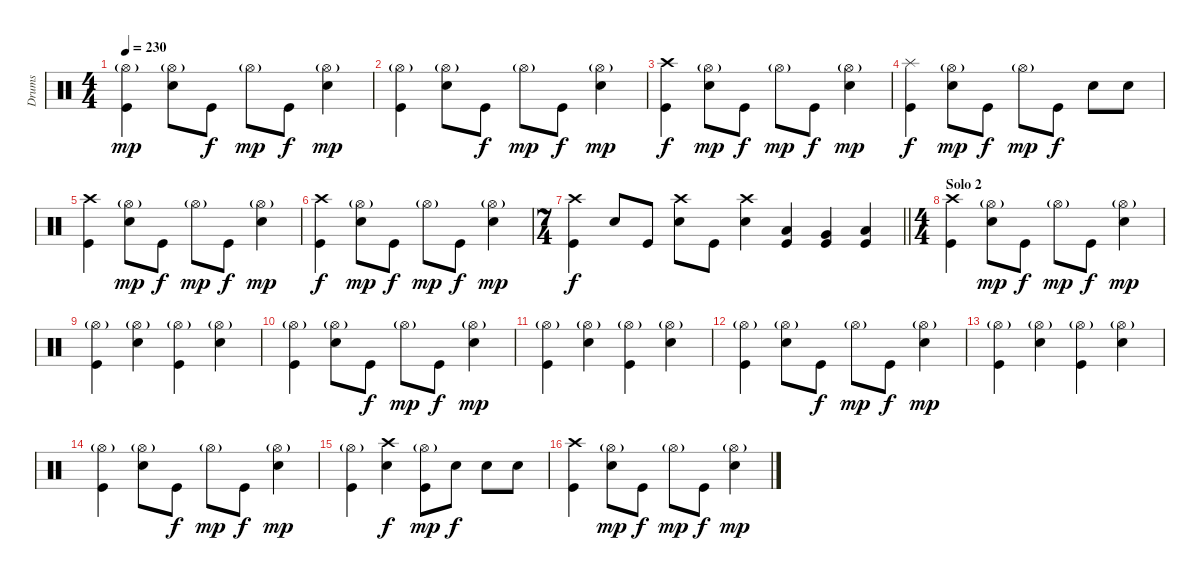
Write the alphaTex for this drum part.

\track ("Drums" "Drums") {instrument percussion}
\staff {score}
\articulation defaults
\ts (4 4)
\tempo 230
\clef neutral
\ks c
("Hi-Hat (open)"{g} "Kick (hit)").4{dy mp} ("Hi-Hat (open)"{g} "Snare (hit) 2").8 "Kick (hit)".8{dy f} "Hi-Hat (open)"{g}.8{dy mp} "Kick (hit)".8{dy f} ("Hi-Hat (open)"{g} "Snare (hit) 2").4{dy mp} |
("Hi-Hat (open)"{g} "Kick (hit)").4 ("Hi-Hat (open)"{g} "Snare (hit) 2").8 "Kick (hit)".8{dy f} "Hi-Hat (open)"{g}.8{dy mp} "Kick (hit)".8{dy f} ("Hi-Hat (open)"{g} "Snare (hit) 2").4{dy mp} |
("Crash high (hit)" "Kick (hit)").4{dy f} ("Hi-Hat (open)"{g} "Snare (hit) 2").8{dy mp} "Kick (hit)".8{dy f} "Hi-Hat (open)"{g}.8{dy mp} "Kick (hit)".8{dy f} ("Hi-Hat (open)"{g} "Snare (hit) 2").4{dy mp} |
("Splash (hit)" "Kick (hit)").4{dy f} ("Hi-Hat (open)"{g} "Snare (hit) 2").8{dy mp} "Kick (hit)".8{dy f} "Hi-Hat (open)"{g}.8{dy mp} "Kick (hit)".8{dy f} "Snare (hit) 2".8 "Snare (hit) 2".8 |
("Crash high (hit)" "Kick (hit)").4 ("Hi-Hat (open)"{g} "Snare (hit) 2").8{dy mp} "Kick (hit)".8{dy f} "Hi-Hat (open)"{g}.8{dy mp} "Kick (hit)".8{dy f} ("Hi-Hat (open)"{g} "Snare (hit) 2").4{dy mp} |
("Crash high (hit)" "Kick (hit)").4{dy f} ("Hi-Hat (open)"{g} "Snare (hit) 2").8{dy mp} "Kick (hit)".8{dy f} "Hi-Hat (open)"{g}.8{dy mp} "Kick (hit)".8{dy f} ("Hi-Hat (open)"{g} "Snare (hit) 2").4{dy mp} |
\ts (7 4)
\barLineRight lightlight
("Crash high (hit)" "Kick (hit)").4{dy f} "Snare (hit) 2".8 "Kick (hit)".8 ("Crash high (hit)" "Snare (hit) 2").8 "Kick (hit)".8 ("Crash high (hit)" "Snare (hit) 2").4 ("Low Tom (hit)" "Kick (hit)").4 ("Very Low Tom (hit)" "Kick (hit)").4 ("Low Floor Tom (hit)" "Kick (hit)").4 |
\ts (4 4)
\section ("" "Solo 2")
("Crash high (hit)" "Kick (hit)").4 ("Hi-Hat (open)"{g} "Snare (hit) 2").8{dy mp} "Kick (hit)".8{dy f} "Hi-Hat (open)"{g}.8{dy mp} "Kick (hit)".8{dy f} ("Hi-Hat (open)"{g} "Snare (hit) 2").4{dy mp} |
("Hi-Hat (open)"{g} "Kick (hit)").4 ("Hi-Hat (open)"{g} "Snare (hit) 2").4 ("Hi-Hat (open)"{g} "Kick (hit)").4 ("Hi-Hat (open)"{g} "Snare (hit) 2").4 |
("Hi-Hat (open)"{g} "Kick (hit)").4 ("Hi-Hat (open)"{g} "Snare (hit) 2").8 "Kick (hit)".8{dy f} "Hi-Hat (open)"{g}.8{dy mp} "Kick (hit)".8{dy f} ("Hi-Hat (open)"{g} "Snare (hit) 2").4{dy mp} |
("Hi-Hat (open)"{g} "Kick (hit)").4 ("Hi-Hat (open)"{g} "Snare (hit) 2").4 ("Hi-Hat (open)"{g} "Kick (hit)").4 ("Hi-Hat (open)"{g} "Snare (hit) 2").4 |
("Hi-Hat (open)"{g} "Kick (hit)").4 ("Hi-Hat (open)"{g} "Snare (hit) 2").8 "Kick (hit)".8{dy f} "Hi-Hat (open)"{g}.8{dy mp} "Kick (hit)".8{dy f} ("Hi-Hat (open)"{g} "Snare (hit) 2").4{dy mp} |
("Hi-Hat (open)"{g} "Kick (hit)").4 ("Hi-Hat (open)"{g} "Snare (hit) 2").4 ("Hi-Hat (open)"{g} "Kick (hit)").4 ("Hi-Hat (open)"{g} "Snare (hit) 2").4 |
("Hi-Hat (open)"{g} "Kick (hit)").4 ("Hi-Hat (open)"{g} "Snare (hit) 2").8 "Kick (hit)".8{dy f} "Hi-Hat (open)"{g}.8{dy mp} "Kick (hit)".8{dy f} ("Hi-Hat (open)"{g} "Snare (hit) 2").4{dy mp} |
("Hi-Hat (open)"{g} "Kick (hit)").4 ("Crash high (hit)" "Snare (hit) 2").4{dy f} ("Hi-Hat (open)"{g} "Kick (hit)").8{dy mp} "Snare (hit) 2".8{dy f} "Snare (hit) 2".8 "Snare (hit) 2".8 |
("Crash high (hit)" "Kick (hit)").4 ("Hi-Hat (open)"{g} "Snare (hit) 2").8{dy mp} "Kick (hit)".8{dy f} "Hi-Hat (open)"{g}.8{dy mp} "Kick (hit)".8{dy f} ("Hi-Hat (open)"{g} "Snare (hit) 2").4{dy mp}
